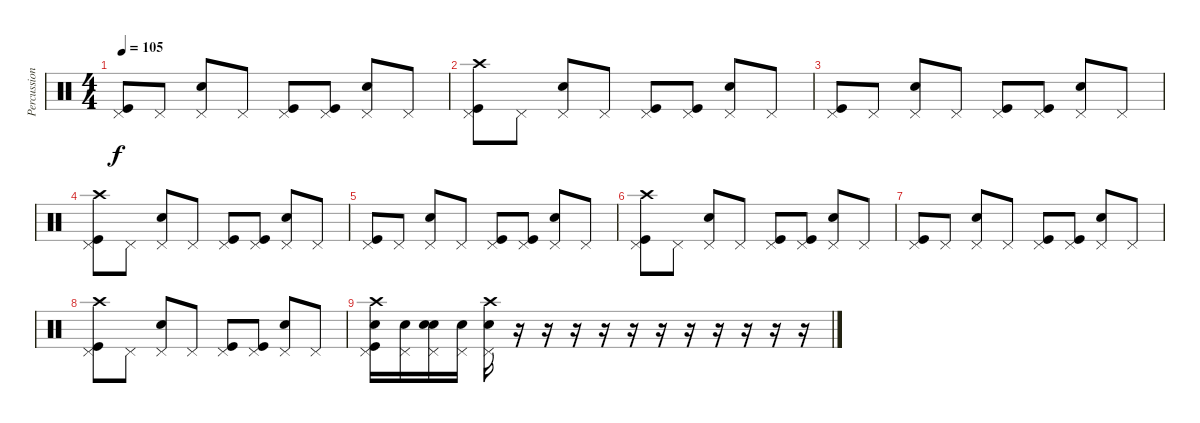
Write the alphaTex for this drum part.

\track ("Percussion" "Percussion") {instrument percussion}
\staff {score}
\articulation defaults
\ts (4 4)
\tempo 105
\clef neutral
\ks c
("Pedal Hi-Hat (hit)" "Kick (hit)").8{dy f} "Pedal Hi-Hat (hit)".8 ("Pedal Hi-Hat (hit)" "Snare (hit) 2").8 "Pedal Hi-Hat (hit)".8 ("Pedal Hi-Hat (hit)" "Kick (hit)").8 ("Pedal Hi-Hat (hit)" "Kick (hit)").8 ("Pedal Hi-Hat (hit)" "Snare (hit) 2").8 "Pedal Hi-Hat (hit)".8 |
("Pedal Hi-Hat (hit)" "Crash high (hit)" "Kick (hit)").8 "Pedal Hi-Hat (hit)".8 ("Pedal Hi-Hat (hit)" "Snare (hit) 2").8 "Pedal Hi-Hat (hit)".8 ("Pedal Hi-Hat (hit)" "Kick (hit)").8 ("Pedal Hi-Hat (hit)" "Kick (hit)").8 ("Pedal Hi-Hat (hit)" "Snare (hit) 2").8 "Pedal Hi-Hat (hit)".8 |
("Pedal Hi-Hat (hit)" "Kick (hit)").8 "Pedal Hi-Hat (hit)".8 ("Pedal Hi-Hat (hit)" "Snare (hit) 2").8 "Pedal Hi-Hat (hit)".8 ("Pedal Hi-Hat (hit)" "Kick (hit)").8 ("Pedal Hi-Hat (hit)" "Kick (hit)").8 ("Pedal Hi-Hat (hit)" "Snare (hit) 2").8 "Pedal Hi-Hat (hit)".8 |
("Pedal Hi-Hat (hit)" "Crash high (hit)" "Kick (hit)").8 "Pedal Hi-Hat (hit)".8 ("Pedal Hi-Hat (hit)" "Snare (hit) 2").8 "Pedal Hi-Hat (hit)".8 ("Pedal Hi-Hat (hit)" "Kick (hit)").8 ("Pedal Hi-Hat (hit)" "Kick (hit)").8 ("Pedal Hi-Hat (hit)" "Snare (hit) 2").8 "Pedal Hi-Hat (hit)".8 |
("Pedal Hi-Hat (hit)" "Kick (hit)").8 "Pedal Hi-Hat (hit)".8 ("Pedal Hi-Hat (hit)" "Snare (hit) 2").8 "Pedal Hi-Hat (hit)".8 ("Pedal Hi-Hat (hit)" "Kick (hit)").8 ("Pedal Hi-Hat (hit)" "Kick (hit)").8 ("Pedal Hi-Hat (hit)" "Snare (hit) 2").8 "Pedal Hi-Hat (hit)".8 |
("Pedal Hi-Hat (hit)" "Crash high (hit)" "Kick (hit)").8 "Pedal Hi-Hat (hit)".8 ("Pedal Hi-Hat (hit)" "Snare (hit) 2").8 "Pedal Hi-Hat (hit)".8 ("Pedal Hi-Hat (hit)" "Kick (hit)").8 ("Pedal Hi-Hat (hit)" "Kick (hit)").8 ("Pedal Hi-Hat (hit)" "Snare (hit) 2").8 "Pedal Hi-Hat (hit)".8 |
("Pedal Hi-Hat (hit)" "Kick (hit)").8 "Pedal Hi-Hat (hit)".8 ("Pedal Hi-Hat (hit)" "Snare (hit) 2").8 "Pedal Hi-Hat (hit)".8 ("Pedal Hi-Hat (hit)" "Kick (hit)").8 ("Pedal Hi-Hat (hit)" "Kick (hit)").8 ("Pedal Hi-Hat (hit)" "Snare (hit) 2").8 "Pedal Hi-Hat (hit)".8 |
("Pedal Hi-Hat (hit)" "Crash high (hit)" "Kick (hit)").8 "Pedal Hi-Hat (hit)".8 ("Pedal Hi-Hat (hit)" "Snare (hit) 2").8 "Pedal Hi-Hat (hit)".8 ("Pedal Hi-Hat (hit)" "Kick (hit)").8 ("Pedal Hi-Hat (hit)" "Kick (hit)").8 ("Pedal Hi-Hat (hit)" "Snare (hit) 2").8 "Pedal Hi-Hat (hit)".8 |
("Pedal Hi-Hat (hit)" "Crash high (hit)" "Snare (hit) 2" "Kick (hit)").16 ("Pedal Hi-Hat (hit)" "Snare (hit) 2").16 ("Pedal Hi-Hat (hit)" "Snare (hit) 2" "Snare (hit) 2").16 ("Pedal Hi-Hat (hit)" "Snare (hit) 2").16 ("Pedal Hi-Hat (hit)" "Crash high (hit)" "Snare (hit) 2").16 r.16 r.16 r.16 r.16 r.16 r.16 r.16 r.16 r.16 r.16 r.16
